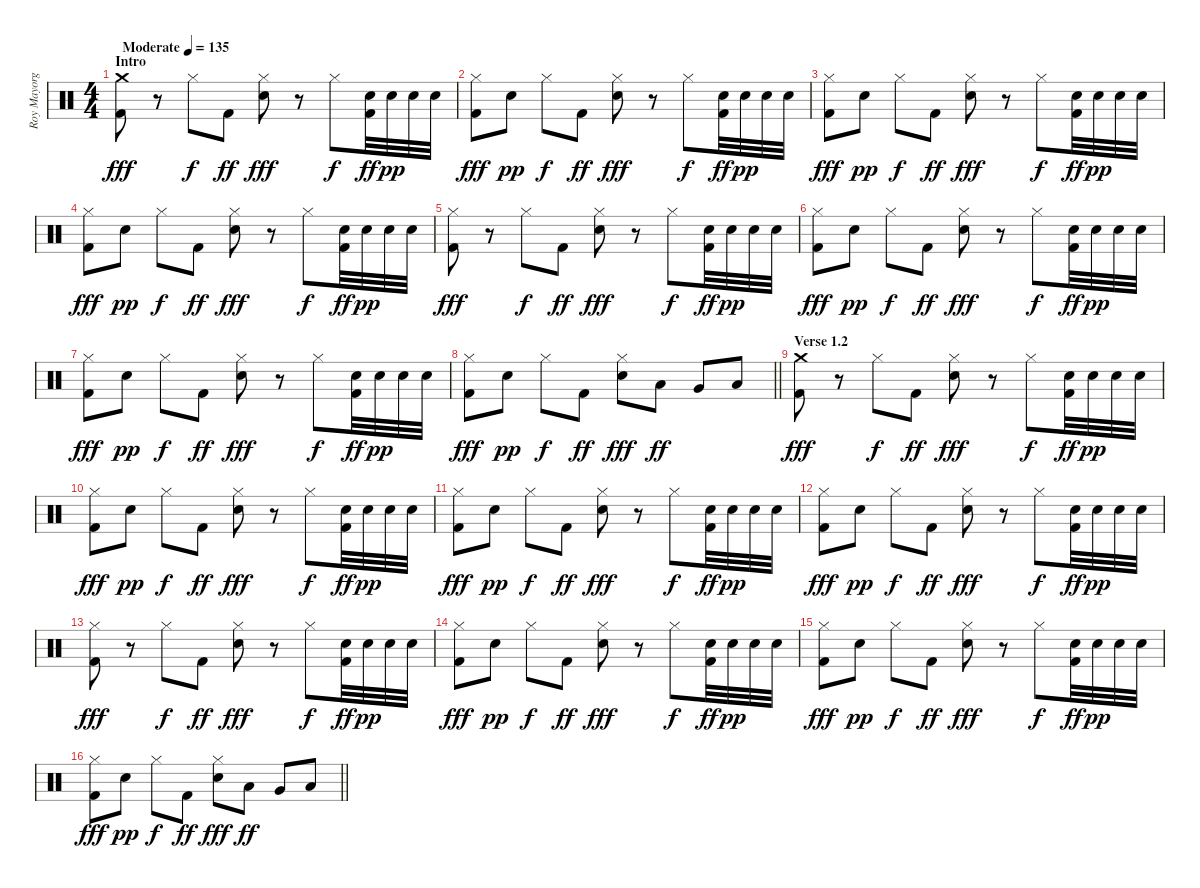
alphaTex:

\track ("Roy Mayorga" "Roy Mayorg") {instrument percussion}
\staff {score}
\articulation defaults
\ts (4 4)
\section ("" "Intro ")
\tempo (135 "Moderate")
\clef neutral
\ks c
("Crash medium (hit)" "Kick (hit) 2").8{dy fff} r.8 "Hi-Hat (closed)".8{dy f} "Kick (hit) 2".8{dy ff} ("Hi-Hat (closed)" "Electric Snare (hit)").8{dy fff} r.8 "Hi-Hat (closed)".8{dy f} ("Electric Snare (hit)" "Kick (hit) 2").32{dy ff} "Electric Snare (hit)".32{dy pp} "Electric Snare (hit)".32 "Electric Snare (hit)".32 |
("Hi-Hat (closed)" "Kick (hit) 2").8{dy fff} "Electric Snare (hit)".8{dy pp} "Hi-Hat (closed)".8{dy f} "Kick (hit) 2".8{dy ff} ("Hi-Hat (closed)" "Electric Snare (hit)").8{dy fff} r.8 "Hi-Hat (closed)".8{dy f} ("Electric Snare (hit)" "Kick (hit) 2").32{dy ff} "Electric Snare (hit)".32{dy pp} "Electric Snare (hit)".32 "Electric Snare (hit)".32 |
("Hi-Hat (closed)" "Kick (hit) 2").8{dy fff} "Electric Snare (hit)".8{dy pp} "Hi-Hat (closed)".8{dy f} "Kick (hit) 2".8{dy ff} ("Hi-Hat (closed)" "Electric Snare (hit)").8{dy fff} r.8 "Hi-Hat (closed)".8{dy f} ("Electric Snare (hit)" "Kick (hit) 2").32{dy ff} "Electric Snare (hit)".32{dy pp} "Electric Snare (hit)".32 "Electric Snare (hit)".32 |
("Hi-Hat (closed)" "Kick (hit) 2").8{dy fff} "Electric Snare (hit)".8{dy pp} "Hi-Hat (closed)".8{dy f} "Kick (hit) 2".8{dy ff} ("Hi-Hat (closed)" "Electric Snare (hit)").8{dy fff} r.8 "Hi-Hat (closed)".8{dy f} ("Electric Snare (hit)" "Kick (hit) 2").32{dy ff} "Electric Snare (hit)".32{dy pp} "Electric Snare (hit)".32 "Electric Snare (hit)".32 |
("Hi-Hat (closed)" "Kick (hit) 2").8{dy fff} r.8 "Hi-Hat (closed)".8{dy f} "Kick (hit) 2".8{dy ff} ("Hi-Hat (closed)" "Electric Snare (hit)").8{dy fff} r.8 "Hi-Hat (closed)".8{dy f} ("Electric Snare (hit)" "Kick (hit) 2").32{dy ff} "Electric Snare (hit)".32{dy pp} "Electric Snare (hit)".32 "Electric Snare (hit)".32 |
("Hi-Hat (closed)" "Kick (hit) 2").8{dy fff} "Electric Snare (hit)".8{dy pp} "Hi-Hat (closed)".8{dy f} "Kick (hit) 2".8{dy ff} ("Hi-Hat (closed)" "Electric Snare (hit)").8{dy fff} r.8 "Hi-Hat (closed)".8{dy f} ("Electric Snare (hit)" "Kick (hit) 2").32{dy ff} "Electric Snare (hit)".32{dy pp} "Electric Snare (hit)".32 "Electric Snare (hit)".32 |
("Hi-Hat (closed)" "Kick (hit) 2").8{dy fff} "Electric Snare (hit)".8{dy pp} "Hi-Hat (closed)".8{dy f} "Kick (hit) 2".8{dy ff} ("Hi-Hat (closed)" "Electric Snare (hit)").8{dy fff} r.8 "Hi-Hat (closed)".8{dy f} ("Electric Snare (hit)" "Kick (hit) 2").32{dy ff} "Electric Snare (hit)".32{dy pp} "Electric Snare (hit)".32 "Electric Snare (hit)".32 |
\barLineRight lightlight
("Hi-Hat (closed)" "Kick (hit) 2").8{dy fff} "Electric Snare (hit)".8{dy pp} "Hi-Hat (closed)".8{dy f} "Kick (hit) 2".8{dy ff} ("Hi-Hat (closed)" "Electric Snare (hit)").8{dy fff} "Low Tom (hit)".8{dy ff} "Very Low Tom (hit)".8 "Low Floor Tom (hit)".8 |
\section ("" "Verse 1.2")
("Crash medium (hit)" "Kick (hit) 2").8{dy fff} r.8 "Hi-Hat (closed)".8{dy f} "Kick (hit) 2".8{dy ff} ("Hi-Hat (closed)" "Electric Snare (hit)").8{dy fff} r.8 "Hi-Hat (closed)".8{dy f} ("Electric Snare (hit)" "Kick (hit) 2").32{dy ff} "Electric Snare (hit)".32{dy pp} "Electric Snare (hit)".32 "Electric Snare (hit)".32 |
("Hi-Hat (closed)" "Kick (hit) 2").8{dy fff} "Electric Snare (hit)".8{dy pp} "Hi-Hat (closed)".8{dy f} "Kick (hit) 2".8{dy ff} ("Hi-Hat (closed)" "Electric Snare (hit)").8{dy fff} r.8 "Hi-Hat (closed)".8{dy f} ("Electric Snare (hit)" "Kick (hit) 2").32{dy ff} "Electric Snare (hit)".32{dy pp} "Electric Snare (hit)".32 "Electric Snare (hit)".32 |
("Hi-Hat (closed)" "Kick (hit) 2").8{dy fff} "Electric Snare (hit)".8{dy pp} "Hi-Hat (closed)".8{dy f} "Kick (hit) 2".8{dy ff} ("Hi-Hat (closed)" "Electric Snare (hit)").8{dy fff} r.8 "Hi-Hat (closed)".8{dy f} ("Electric Snare (hit)" "Kick (hit) 2").32{dy ff} "Electric Snare (hit)".32{dy pp} "Electric Snare (hit)".32 "Electric Snare (hit)".32 |
("Hi-Hat (closed)" "Kick (hit) 2").8{dy fff} "Electric Snare (hit)".8{dy pp} "Hi-Hat (closed)".8{dy f} "Kick (hit) 2".8{dy ff} ("Hi-Hat (closed)" "Electric Snare (hit)").8{dy fff} r.8 "Hi-Hat (closed)".8{dy f} ("Electric Snare (hit)" "Kick (hit) 2").32{dy ff} "Electric Snare (hit)".32{dy pp} "Electric Snare (hit)".32 "Electric Snare (hit)".32 |
("Hi-Hat (closed)" "Kick (hit) 2").8{dy fff} r.8 "Hi-Hat (closed)".8{dy f} "Kick (hit) 2".8{dy ff} ("Hi-Hat (closed)" "Electric Snare (hit)").8{dy fff} r.8 "Hi-Hat (closed)".8{dy f} ("Electric Snare (hit)" "Kick (hit) 2").32{dy ff} "Electric Snare (hit)".32{dy pp} "Electric Snare (hit)".32 "Electric Snare (hit)".32 |
("Hi-Hat (closed)" "Kick (hit) 2").8{dy fff} "Electric Snare (hit)".8{dy pp} "Hi-Hat (closed)".8{dy f} "Kick (hit) 2".8{dy ff} ("Hi-Hat (closed)" "Electric Snare (hit)").8{dy fff} r.8 "Hi-Hat (closed)".8{dy f} ("Electric Snare (hit)" "Kick (hit) 2").32{dy ff} "Electric Snare (hit)".32{dy pp} "Electric Snare (hit)".32 "Electric Snare (hit)".32 |
("Hi-Hat (closed)" "Kick (hit) 2").8{dy fff} "Electric Snare (hit)".8{dy pp} "Hi-Hat (closed)".8{dy f} "Kick (hit) 2".8{dy ff} ("Hi-Hat (closed)" "Electric Snare (hit)").8{dy fff} r.8 "Hi-Hat (closed)".8{dy f} ("Electric Snare (hit)" "Kick (hit) 2").32{dy ff} "Electric Snare (hit)".32{dy pp} "Electric Snare (hit)".32 "Electric Snare (hit)".32 |
\barLineRight lightlight
("Hi-Hat (closed)" "Kick (hit) 2").8{dy fff} "Electric Snare (hit)".8{dy pp} "Hi-Hat (closed)".8{dy f} "Kick (hit) 2".8{dy ff} ("Hi-Hat (closed)" "Electric Snare (hit)").8{dy fff} "Low Tom (hit)".8{dy ff} "Very Low Tom (hit)".8 "Low Floor Tom (hit)".8
